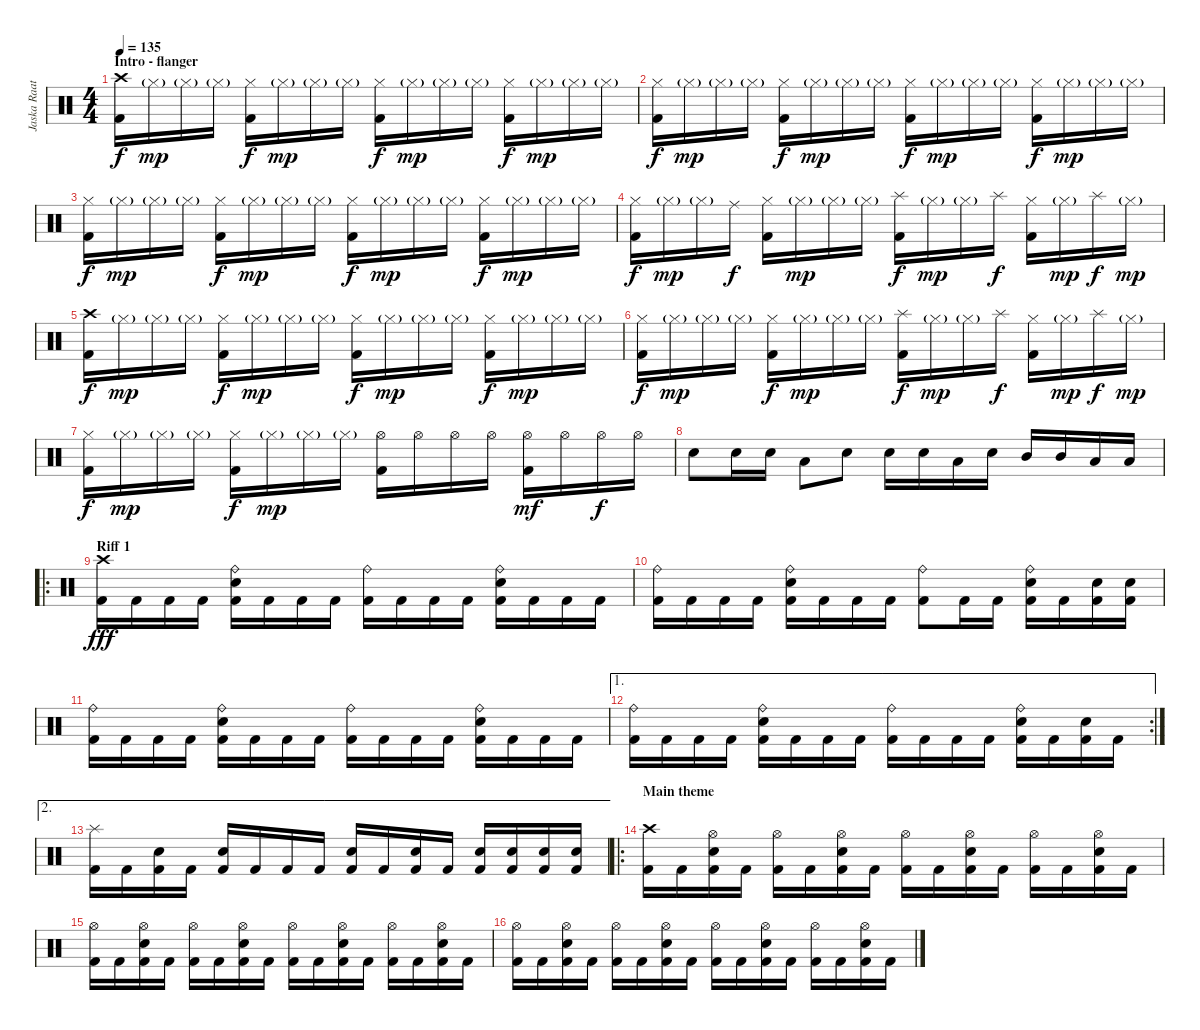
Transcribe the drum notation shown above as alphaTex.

\track ("Jaska Raatikainen" "Jaska Raat") {instrument percussion}
\staff {score}
\articulation defaults
\ts (4 4)
\section ("" "Intro - flanger")
\tempo 135
\clef neutral
\ks c
("Crash high (hit)" "Kick (hit) 2").16{dy f} "Hi-Hat (closed)"{g}.16{dy mp} "Hi-Hat (closed)"{g}.16 "Hi-Hat (closed)"{g}.16 ("Hi-Hat (closed)" "Kick (hit) 2").16{dy f} "Hi-Hat (closed)"{g}.16{dy mp} "Hi-Hat (closed)"{g}.16 "Hi-Hat (closed)"{g}.16 ("Hi-Hat (closed)" "Kick (hit) 2").16{dy f} "Hi-Hat (closed)"{g}.16{dy mp} "Hi-Hat (closed)"{g}.16 "Hi-Hat (closed)"{g}.16 ("Hi-Hat (closed)" "Kick (hit) 2").16{dy f} "Hi-Hat (closed)"{g}.16{dy mp} "Hi-Hat (closed)"{g}.16 "Hi-Hat (closed)"{g}.16 |
("Hi-Hat (closed)" "Kick (hit) 2").16{dy f} "Hi-Hat (closed)"{g}.16{dy mp} "Hi-Hat (closed)"{g}.16 "Hi-Hat (closed)"{g}.16 ("Hi-Hat (closed)" "Kick (hit) 2").16{dy f} "Hi-Hat (closed)"{g}.16{dy mp} "Hi-Hat (closed)"{g}.16 "Hi-Hat (closed)"{g}.16 ("Hi-Hat (closed)" "Kick (hit) 2").16{dy f} "Hi-Hat (closed)"{g}.16{dy mp} "Hi-Hat (closed)"{g}.16 "Hi-Hat (closed)"{g}.16 ("Hi-Hat (closed)" "Kick (hit) 2").16{dy f} "Hi-Hat (closed)"{g}.16{dy mp} "Hi-Hat (closed)"{g}.16 "Hi-Hat (closed)"{g}.16 |
("Hi-Hat (closed)" "Kick (hit) 2").16{dy f} "Hi-Hat (closed)"{g}.16{dy mp} "Hi-Hat (closed)"{g}.16 "Hi-Hat (closed)"{g}.16 ("Hi-Hat (closed)" "Kick (hit) 2").16{dy f} "Hi-Hat (closed)"{g}.16{dy mp} "Hi-Hat (closed)"{g}.16 "Hi-Hat (closed)"{g}.16 ("Hi-Hat (closed)" "Kick (hit) 2").16{dy f} "Hi-Hat (closed)"{g}.16{dy mp} "Hi-Hat (closed)"{g}.16 "Hi-Hat (closed)"{g}.16 ("Hi-Hat (closed)" "Kick (hit) 2").16{dy f} "Hi-Hat (closed)"{g}.16{dy mp} "Hi-Hat (closed)"{g}.16 "Hi-Hat (closed)"{g}.16 |
("Hi-Hat (closed)" "Kick (hit) 2").16{dy f} "Hi-Hat (closed)"{g}.16{dy mp} "Hi-Hat (closed)"{g}.16 "Ride (middle)".16{dy f} ("Hi-Hat (closed)" "Kick (hit) 2").16 "Hi-Hat (closed)"{g}.16{dy mp} "Hi-Hat (closed)"{g}.16 "Hi-Hat (closed)"{g}.16 ("Splash (hit)" "Kick (hit) 2").16{dy f} "Hi-Hat (closed)"{g}.16{dy mp} "Hi-Hat (closed)"{g}.16 "Splash (hit)".16{dy f} ("Hi-Hat (closed)" "Kick (hit) 2").16 "Hi-Hat (closed)"{g}.16{dy mp} "Splash (hit)".16{dy f} "Hi-Hat (closed)"{g}.16{dy mp} |
("Crash high (hit)" "Kick (hit) 2").16{dy f} "Hi-Hat (closed)"{g}.16{dy mp} "Hi-Hat (closed)"{g}.16 "Hi-Hat (closed)"{g}.16 ("Hi-Hat (closed)" "Kick (hit) 2").16{dy f} "Hi-Hat (closed)"{g}.16{dy mp} "Hi-Hat (closed)"{g}.16 "Hi-Hat (closed)"{g}.16 ("Hi-Hat (closed)" "Kick (hit) 2").16{dy f} "Hi-Hat (closed)"{g}.16{dy mp} "Hi-Hat (closed)"{g}.16 "Hi-Hat (closed)"{g}.16 ("Hi-Hat (closed)" "Kick (hit) 2").16{dy f} "Hi-Hat (closed)"{g}.16{dy mp} "Hi-Hat (closed)"{g}.16 "Hi-Hat (closed)"{g}.16 |
("Hi-Hat (closed)" "Kick (hit) 2").16{dy f} "Hi-Hat (closed)"{g}.16{dy mp} "Hi-Hat (closed)"{g}.16 "Hi-Hat (closed)"{g}.16 ("Hi-Hat (closed)" "Kick (hit) 2").16{dy f} "Hi-Hat (closed)"{g}.16{dy mp} "Hi-Hat (closed)"{g}.16 "Hi-Hat (closed)"{g}.16 ("Splash (hit)" "Kick (hit) 2").16{dy f} "Hi-Hat (closed)"{g}.16{dy mp} "Hi-Hat (closed)"{g}.16 "Splash (hit)".16{dy f} ("Hi-Hat (closed)" "Kick (hit) 2").16 "Hi-Hat (closed)"{g}.16{dy mp} "Splash (hit)".16{dy f} "Hi-Hat (closed)"{g}.16{dy mp} |
("Hi-Hat (closed)" "Kick (hit) 2").16{dy f} "Hi-Hat (closed)"{g}.16{dy mp} "Hi-Hat (closed)"{g}.16 "Hi-Hat (closed)"{g}.16 ("Hi-Hat (closed)" "Kick (hit) 2").16{dy f} "Hi-Hat (closed)"{g}.16{dy mp} "Hi-Hat (closed)"{g}.16 "Hi-Hat (closed)"{g}.16 ("Hi-Hat (open)" "Kick (hit) 2").16 "Hi-Hat (open)".16 "Hi-Hat (open)".16 "Hi-Hat (open)".16 ("Hi-Hat (open)" "Kick (hit) 2").16{dy mf} "Hi-Hat (open)".16 "Hi-Hat (open)".16{dy f} "Hi-Hat (open)".16 |
"Electric Snare (hit)".8 "Electric Snare (hit)".16 "Electric Snare (hit)".16 "Low Tom (hit)".8 "Electric Snare (hit)".8 "Electric Snare (hit)".16 "Electric Snare (hit)".16 "Low Tom (hit)".16 "Electric Snare (hit)".16 "Mid Tom (hit)".16 "Mid Tom (hit)".16 "Low Tom (hit)".16 "Low Tom (hit)".16 |
\ro
\section ("" "Riff 1")
("Crash high (hit)" "Kick (hit) 2").16{dy fff} "Kick (hit) 2".16 "Kick (hit) 2".16 "Kick (hit) 2".16 ("Ride (bell)" "Electric Snare (hit)" "Kick (hit) 2").16 "Kick (hit) 2".16 "Kick (hit) 2".16 "Kick (hit) 2".16 ("Ride (bell)" "Kick (hit) 2").16 "Kick (hit) 2".16 "Kick (hit) 2".16 "Kick (hit) 2".16 ("Ride (bell)" "Electric Snare (hit)" "Kick (hit) 2").16 "Kick (hit) 2".16 "Kick (hit) 2".16 "Kick (hit) 2".16 |
("Ride (bell)" "Kick (hit) 2").16 "Kick (hit) 2".16 "Kick (hit) 2".16 "Kick (hit) 2".16 ("Ride (bell)" "Electric Snare (hit)" "Kick (hit) 2").16 "Kick (hit) 2".16 "Kick (hit) 2".16 "Kick (hit) 2".16 ("Ride (bell)" "Kick (hit) 2").8 "Kick (hit) 2".16 "Kick (hit) 2".16 ("Ride (bell)" "Electric Snare (hit)" "Kick (hit) 2").16 "Kick (hit) 2".16 ("Electric Snare (hit)" "Kick (hit) 2").16 ("Electric Snare (hit)" "Kick (hit) 2").16 |
("Ride (bell)" "Kick (hit) 2").16 "Kick (hit) 2".16 "Kick (hit) 2".16 "Kick (hit) 2".16 ("Ride (bell)" "Electric Snare (hit)" "Kick (hit) 2").16 "Kick (hit) 2".16 "Kick (hit) 2".16 "Kick (hit) 2".16 ("Ride (bell)" "Kick (hit) 2").16 "Kick (hit) 2".16 "Kick (hit) 2".16 "Kick (hit) 2".16 ("Ride (bell)" "Electric Snare (hit)" "Kick (hit) 2").16 "Kick (hit) 2".16 "Kick (hit) 2".16 "Kick (hit) 2".16 |
\ae 1
\rc 2
("Ride (bell)" "Kick (hit) 2").16 "Kick (hit) 2".16 "Kick (hit) 2".16 "Kick (hit) 2".16 ("Ride (bell)" "Electric Snare (hit)" "Kick (hit) 2").16 "Kick (hit) 2".16 "Kick (hit) 2".16 "Kick (hit) 2".16 ("Ride (bell)" "Kick (hit) 2").16 "Kick (hit) 2".16 "Kick (hit) 2".16 "Kick (hit) 2".16 ("Ride (bell)" "Electric Snare (hit)" "Kick (hit) 2").16 "Kick (hit) 2".16 ("Electric Snare (hit)" "Kick (hit) 2").16 "Kick (hit) 2".16 |
\ae 2
("Splash (hit)" "Kick (hit) 2").16 "Kick (hit) 2".16 ("Electric Snare (hit)" "Kick (hit) 2").16 "Kick (hit) 2".16 ("Electric Snare (hit)" "Kick (hit) 2").16 "Kick (hit) 2".16 "Kick (hit) 2".16 "Kick (hit) 2".16 ("Electric Snare (hit)" "Kick (hit) 2").16 "Kick (hit) 2".16 ("Electric Snare (hit)" "Kick (hit) 2").16 "Kick (hit) 2".16 ("Electric Snare (hit)" "Kick (hit) 2").16 ("Electric Snare (hit)" "Kick (hit) 2").16 ("Electric Snare (hit)" "Kick (hit) 2").16 ("Electric Snare (hit)" "Kick (hit) 2").16 |
\ro
\section ("" "Main theme")
("Crash high (hit)" "Kick (hit) 2").16 "Kick (hit) 2".16 ("Hi-Hat (open)" "Electric Snare (hit)" "Kick (hit) 2").16 "Kick (hit) 2".16 ("Hi-Hat (open)" "Kick (hit) 2").16 "Kick (hit) 2".16 ("Hi-Hat (open)" "Electric Snare (hit)" "Kick (hit) 2").16 "Kick (hit) 2".16 ("Hi-Hat (open)" "Kick (hit) 2").16 "Kick (hit) 2".16 ("Hi-Hat (open)" "Electric Snare (hit)" "Kick (hit) 2").16 "Kick (hit) 2".16 ("Hi-Hat (open)" "Kick (hit) 2").16 "Kick (hit) 2".16 ("Hi-Hat (open)" "Electric Snare (hit)" "Kick (hit) 2").16 "Kick (hit) 2".16 |
("Hi-Hat (open)" "Kick (hit) 2").16 "Kick (hit) 2".16 ("Hi-Hat (open)" "Electric Snare (hit)" "Kick (hit) 2").16 "Kick (hit) 2".16 ("Hi-Hat (open)" "Kick (hit) 2").16 "Kick (hit) 2".16 ("Hi-Hat (open)" "Electric Snare (hit)" "Kick (hit) 2").16 "Kick (hit) 2".16 ("Hi-Hat (open)" "Kick (hit) 2").16 "Kick (hit) 2".16 ("Hi-Hat (open)" "Electric Snare (hit)" "Kick (hit) 2").16 "Kick (hit) 2".16 ("Hi-Hat (open)" "Kick (hit) 2").16 "Kick (hit) 2".16 ("Hi-Hat (open)" "Electric Snare (hit)" "Kick (hit) 2").16 "Kick (hit) 2".16 |
("Hi-Hat (open)" "Kick (hit) 2").16 "Kick (hit) 2".16 ("Hi-Hat (open)" "Electric Snare (hit)" "Kick (hit) 2").16 "Kick (hit) 2".16 ("Hi-Hat (open)" "Kick (hit) 2").16 "Kick (hit) 2".16 ("Hi-Hat (open)" "Electric Snare (hit)" "Kick (hit) 2").16 "Kick (hit) 2".16 ("Hi-Hat (open)" "Kick (hit) 2").16 "Kick (hit) 2".16 ("Hi-Hat (open)" "Electric Snare (hit)" "Kick (hit) 2").16 "Kick (hit) 2".16 ("Hi-Hat (open)" "Kick (hit) 2").16 "Kick (hit) 2".16 ("Hi-Hat (open)" "Electric Snare (hit)" "Kick (hit) 2").16 "Kick (hit) 2".16
